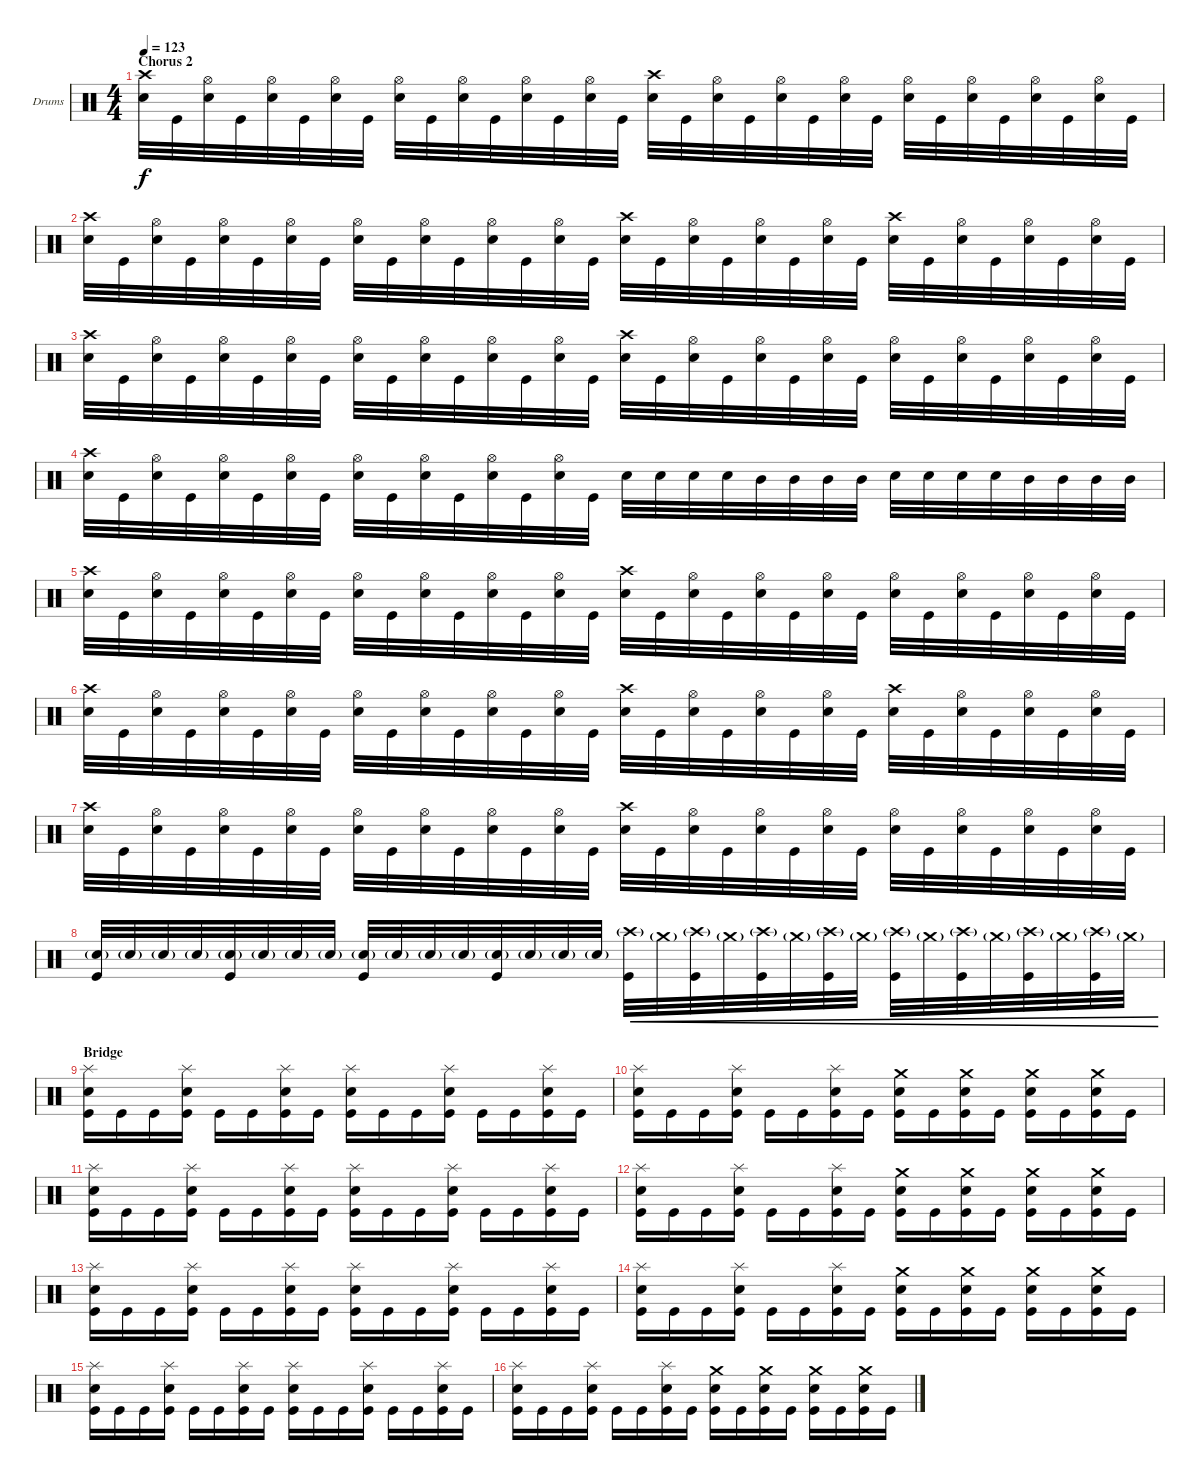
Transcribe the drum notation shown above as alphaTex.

\defaultSystemsLayout 4
\bracketExtendMode groupsimilarinstruments
\firstSystemTrackNameOrientation horizontal
\otherSystemsTrackNameOrientation horizontal
\track ("Drumkit" "Drums") {instrument percussion}
\staff {score}
\articulation defaults
\ts (4 4)
\section ("" "Chorus 2")
\tempo 123
\clef neutral
\scale
0.333333
\ks c
("Snare (hit) 2" "Crash high (hit)").32{dy f} "Kick (hit)".32 ("Snare (hit) 2" "Hi-Hat (open)").32 "Kick (hit)".32 ("Snare (hit) 2" "Hi-Hat (open)").32 "Kick (hit)".32 ("Snare (hit) 2" "Hi-Hat (open)").32 "Kick (hit)".32 ("Snare (hit) 2" "Hi-Hat (open)").32 "Kick (hit)".32 ("Snare (hit) 2" "Hi-Hat (open)").32 "Kick (hit)".32 ("Snare (hit) 2" "Hi-Hat (open)").32 "Kick (hit)".32 ("Snare (hit) 2" "Hi-Hat (open)").32 "Kick (hit)".32 ("Snare (hit) 2" "Crash high (hit)").32 "Kick (hit)".32 ("Snare (hit) 2" "Hi-Hat (open)").32 "Kick (hit)".32 ("Snare (hit) 2" "Hi-Hat (open)").32 "Kick (hit)".32 ("Snare (hit) 2" "Hi-Hat (open)").32 "Kick (hit)".32 ("Snare (hit) 2" "Hi-Hat (open)").32 "Kick (hit)".32 ("Snare (hit) 2" "Hi-Hat (open)").32 "Kick (hit)".32 ("Snare (hit) 2" "Hi-Hat (open)").32 "Kick (hit)".32 ("Snare (hit) 2" "Hi-Hat (open)").32 "Kick (hit)".32 |
\scale
0.333333 ("Snare (hit) 2" "Crash high (hit)").32 "Kick (hit)".32 ("Snare (hit) 2" "Hi-Hat (open)").32 "Kick (hit)".32 ("Snare (hit) 2" "Hi-Hat (open)").32 "Kick (hit)".32 ("Snare (hit) 2" "Hi-Hat (open)").32 "Kick (hit)".32 ("Snare (hit) 2" "Hi-Hat (open)").32 "Kick (hit)".32 ("Snare (hit) 2" "Hi-Hat (open)").32 "Kick (hit)".32 ("Snare (hit) 2" "Hi-Hat (open)").32 "Kick (hit)".32 ("Snare (hit) 2" "Hi-Hat (open)").32 "Kick (hit)".32 ("Snare (hit) 2" "Crash high (hit)").32 "Kick (hit)".32 ("Snare (hit) 2" "Hi-Hat (open)").32 "Kick (hit)".32 ("Snare (hit) 2" "Hi-Hat (open)").32 "Kick (hit)".32 ("Snare (hit) 2" "Hi-Hat (open)").32 "Kick (hit)".32 ("Snare (hit) 2" "Crash high (hit)").32 "Kick (hit)".32 ("Snare (hit) 2" "Hi-Hat (open)").32 "Kick (hit)".32 ("Snare (hit) 2" "Hi-Hat (open)").32 "Kick (hit)".32 ("Snare (hit) 2" "Hi-Hat (open)").32 "Kick (hit)".32 |
\scale
0.333333 ("Snare (hit) 2" "Crash high (hit)").32 "Kick (hit)".32 ("Snare (hit) 2" "Hi-Hat (open)").32 "Kick (hit)".32 ("Snare (hit) 2" "Hi-Hat (open)").32 "Kick (hit)".32 ("Snare (hit) 2" "Hi-Hat (open)").32 "Kick (hit)".32 ("Snare (hit) 2" "Hi-Hat (open)").32 "Kick (hit)".32 ("Snare (hit) 2" "Hi-Hat (open)").32 "Kick (hit)".32 ("Snare (hit) 2" "Hi-Hat (open)").32 "Kick (hit)".32 ("Snare (hit) 2" "Hi-Hat (open)").32 "Kick (hit)".32 ("Snare (hit) 2" "Crash high (hit)").32 "Kick (hit)".32 ("Snare (hit) 2" "Hi-Hat (open)").32 "Kick (hit)".32 ("Snare (hit) 2" "Hi-Hat (open)").32 "Kick (hit)".32 ("Snare (hit) 2" "Hi-Hat (open)").32 "Kick (hit)".32 ("Snare (hit) 2" "Hi-Hat (open)").32 "Kick (hit)".32 ("Snare (hit) 2" "Hi-Hat (open)").32 "Kick (hit)".32 ("Snare (hit) 2" "Hi-Hat (open)").32 "Kick (hit)".32 ("Snare (hit) 2" "Hi-Hat (open)").32 "Kick (hit)".32 |
\scale
0.333333 ("Snare (hit) 2" "Crash high (hit)").32 "Kick (hit)".32 ("Snare (hit) 2" "Hi-Hat (open)").32 "Kick (hit)".32 ("Snare (hit) 2" "Hi-Hat (open)").32 "Kick (hit)".32 ("Snare (hit) 2" "Hi-Hat (open)").32 "Kick (hit)".32 ("Snare (hit) 2" "Hi-Hat (open)").32 "Kick (hit)".32 ("Snare (hit) 2" "Hi-Hat (open)").32 "Kick (hit)".32 ("Snare (hit) 2" "Hi-Hat (open)").32 "Kick (hit)".32 ("Snare (hit) 2" "Hi-Hat (open)").32 "Kick (hit)".32 "Snare (hit) 2".32 "Snare (hit) 2".32 "Snare (hit) 2".32 "Snare (hit) 2".32 "Mid Tom (hit)".32 "Mid Tom (hit)".32 "Mid Tom (hit)".32 "Mid Tom (hit)".32 "Snare (hit) 2".32 "Snare (hit) 2".32 "Snare (hit) 2".32 "Snare (hit) 2".32 "Mid Tom (hit)".32 "Mid Tom (hit)".32 "Mid Tom (hit)".32 "Mid Tom (hit)".32 |
\scale
0.333333 ("Snare (hit) 2" "Crash high (hit)").32 "Kick (hit)".32 ("Snare (hit) 2" "Hi-Hat (open)").32 "Kick (hit)".32 ("Snare (hit) 2" "Hi-Hat (open)").32 "Kick (hit)".32 ("Snare (hit) 2" "Hi-Hat (open)").32 "Kick (hit)".32 ("Snare (hit) 2" "Hi-Hat (open)").32 "Kick (hit)".32 ("Snare (hit) 2" "Hi-Hat (open)").32 "Kick (hit)".32 ("Snare (hit) 2" "Hi-Hat (open)").32 "Kick (hit)".32 ("Snare (hit) 2" "Hi-Hat (open)").32 "Kick (hit)".32 ("Snare (hit) 2" "Crash high (hit)").32 "Kick (hit)".32 ("Snare (hit) 2" "Hi-Hat (open)").32 "Kick (hit)".32 ("Snare (hit) 2" "Hi-Hat (open)").32 "Kick (hit)".32 ("Snare (hit) 2" "Hi-Hat (open)").32 "Kick (hit)".32 ("Snare (hit) 2" "Hi-Hat (open)").32 "Kick (hit)".32 ("Snare (hit) 2" "Hi-Hat (open)").32 "Kick (hit)".32 ("Snare (hit) 2" "Hi-Hat (open)").32 "Kick (hit)".32 ("Snare (hit) 2" "Hi-Hat (open)").32 "Kick (hit)".32 |
\scale
0.333333 ("Snare (hit) 2" "Crash high (hit)").32 "Kick (hit)".32 ("Snare (hit) 2" "Hi-Hat (open)").32 "Kick (hit)".32 ("Snare (hit) 2" "Hi-Hat (open)").32 "Kick (hit)".32 ("Snare (hit) 2" "Hi-Hat (open)").32 "Kick (hit)".32 ("Snare (hit) 2" "Hi-Hat (open)").32 "Kick (hit)".32 ("Snare (hit) 2" "Hi-Hat (open)").32 "Kick (hit)".32 ("Snare (hit) 2" "Hi-Hat (open)").32 "Kick (hit)".32 ("Snare (hit) 2" "Hi-Hat (open)").32 "Kick (hit)".32 ("Snare (hit) 2" "Crash high (hit)").32 "Kick (hit)".32 ("Snare (hit) 2" "Hi-Hat (open)").32 "Kick (hit)".32 ("Snare (hit) 2" "Hi-Hat (open)").32 "Kick (hit)".32 ("Snare (hit) 2" "Hi-Hat (open)").32 "Kick (hit)".32 ("Snare (hit) 2" "Crash high (hit)").32 "Kick (hit)".32 ("Snare (hit) 2" "Hi-Hat (open)").32 "Kick (hit)".32 ("Snare (hit) 2" "Hi-Hat (open)").32 "Kick (hit)".32 ("Snare (hit) 2" "Hi-Hat (open)").32 "Kick (hit)".32 |
\scale
0.333333 ("Snare (hit) 2" "Crash high (hit)").32 "Kick (hit)".32 ("Snare (hit) 2" "Hi-Hat (open)").32 "Kick (hit)".32 ("Snare (hit) 2" "Hi-Hat (open)").32 "Kick (hit)".32 ("Snare (hit) 2" "Hi-Hat (open)").32 "Kick (hit)".32 ("Snare (hit) 2" "Hi-Hat (open)").32 "Kick (hit)".32 ("Snare (hit) 2" "Hi-Hat (open)").32 "Kick (hit)".32 ("Snare (hit) 2" "Hi-Hat (open)").32 "Kick (hit)".32 ("Snare (hit) 2" "Hi-Hat (open)").32 "Kick (hit)".32 ("Snare (hit) 2" "Crash high (hit)").32 "Kick (hit)".32 ("Snare (hit) 2" "Hi-Hat (open)").32 "Kick (hit)".32 ("Snare (hit) 2" "Hi-Hat (open)").32 "Kick (hit)".32 ("Snare (hit) 2" "Hi-Hat (open)").32 "Kick (hit)".32 ("Snare (hit) 2" "Hi-Hat (open)").32 "Kick (hit)".32 ("Snare (hit) 2" "Hi-Hat (open)").32 "Kick (hit)".32 ("Snare (hit) 2" "Hi-Hat (open)").32 "Kick (hit)".32 ("Snare (hit) 2" "Hi-Hat (open)").32 "Kick (hit)".32 |
\scale
0.333333 ("Snare (hit) 2"{g} "Kick (hit)").32 "Snare (hit) 2"{g}.32 "Snare (hit) 2"{g}.32 "Snare (hit) 2"{g}.32 ("Snare (hit) 2"{g} "Kick (hit)").32 "Snare (hit) 2"{g}.32 "Snare (hit) 2"{g}.32 "Snare (hit) 2"{g}.32 ("Snare (hit) 2"{g} "Kick (hit)").32 "Snare (hit) 2"{g}.32 "Snare (hit) 2"{g}.32 "Snare (hit) 2"{g}.32 ("Snare (hit) 2"{g} "Kick (hit)").32 "Snare (hit) 2"{g}.32 "Snare (hit) 2"{g}.32 "Snare (hit) 2"{g}.32 ("Kick (hit)" "Crash high (hit)"{g}).32{cre} "Crash medium (hit)"{g}.32{cre} ("Kick (hit)" "Crash high (hit)"{g}).32{cre} "Crash medium (hit)"{g}.32{cre} ("Kick (hit)" "Crash high (hit)"{g}).32{cre} "Crash medium (hit)"{g}.32{cre} ("Kick (hit)" "Crash high (hit)"{g}).32{cre} "Crash medium (hit)"{g}.32{cre} ("Kick (hit)" "Crash high (hit)"{g}).32{cre} "Crash medium (hit)"{g}.32{cre} ("Kick (hit)" "Crash high (hit)"{g}).32{cre} "Crash medium (hit)"{g}.32{cre} ("Kick (hit)" "Crash high (hit)"{g}).32{cre} "Crash medium (hit)"{g}.32{cre} ("Kick (hit)" "Crash high (hit)"{g}).32{cre} "Crash medium (hit)"{g}.32{cre} |
\section ("" "Bridge")
\scale
0.333333 ("Kick (hit)" "Snare (hit) 2" "Splash (hit)").16 "Kick (hit)".16 "Kick (hit)".16 ("Kick (hit)" "Snare (hit) 2" "Splash (hit)").16 "Kick (hit)".16 "Kick (hit)".16 ("Kick (hit)" "Snare (hit) 2" "Splash (hit)").16 "Kick (hit)".16 ("Kick (hit)" "Snare (hit) 2" "Splash (hit)").16 "Kick (hit)".16 "Kick (hit)".16 ("Kick (hit)" "Snare (hit) 2" "Splash (hit)").16 "Kick (hit)".16 "Kick (hit)".16 ("Kick (hit)" "Snare (hit) 2" "Splash (hit)").16 "Kick (hit)".16 |
\scale
0.333333 ("Kick (hit)" "Snare (hit) 2" "Splash (hit)").16 "Kick (hit)".16 "Kick (hit)".16 ("Kick (hit)" "Snare (hit) 2" "Splash (hit)").16 "Kick (hit)".16 "Kick (hit)".16 ("Kick (hit)" "Snare (hit) 2" "Splash (hit)").16 "Kick (hit)".16 ("Kick (hit)" "Snare (hit) 2" "Crash medium (hit)").16 "Kick (hit)".16 ("Kick (hit)" "Snare (hit) 2" "Crash medium (hit)").16 "Kick (hit)".16 ("Kick (hit)" "Snare (hit) 2" "Crash medium (hit)").16 "Kick (hit)".16 ("Kick (hit)" "Crash medium (hit)" "Snare (hit) 2").16 "Kick (hit)".16 |
\scale
0.333333 ("Kick (hit)" "Snare (hit) 2" "Splash (hit)").16 "Kick (hit)".16 "Kick (hit)".16 ("Kick (hit)" "Snare (hit) 2" "Splash (hit)").16 "Kick (hit)".16 "Kick (hit)".16 ("Kick (hit)" "Snare (hit) 2" "Splash (hit)").16 "Kick (hit)".16 ("Kick (hit)" "Snare (hit) 2" "Splash (hit)").16 "Kick (hit)".16 "Kick (hit)".16 ("Kick (hit)" "Snare (hit) 2" "Splash (hit)").16 "Kick (hit)".16 "Kick (hit)".16 ("Kick (hit)" "Snare (hit) 2" "Splash (hit)").16 "Kick (hit)".16 |
\scale
0.333333 ("Kick (hit)" "Snare (hit) 2" "Splash (hit)").16 "Kick (hit)".16 "Kick (hit)".16 ("Kick (hit)" "Snare (hit) 2" "Splash (hit)").16 "Kick (hit)".16 "Kick (hit)".16 ("Kick (hit)" "Snare (hit) 2" "Splash (hit)").16 "Kick (hit)".16 ("Kick (hit)" "Snare (hit) 2" "Crash medium (hit)").16 "Kick (hit)".16 ("Kick (hit)" "Snare (hit) 2" "Crash medium (hit)").16 "Kick (hit)".16 ("Kick (hit)" "Snare (hit) 2" "Crash medium (hit)").16 "Kick (hit)".16 ("Kick (hit)" "Crash medium (hit)" "Snare (hit) 2").16 "Kick (hit)".16 |
\scale
0.333333 ("Kick (hit)" "Snare (hit) 2" "Splash (hit)").16 "Kick (hit)".16 "Kick (hit)".16 ("Kick (hit)" "Snare (hit) 2" "Splash (hit)").16 "Kick (hit)".16 "Kick (hit)".16 ("Kick (hit)" "Snare (hit) 2" "Splash (hit)").16 "Kick (hit)".16 ("Kick (hit)" "Snare (hit) 2" "Splash (hit)").16 "Kick (hit)".16 "Kick (hit)".16 ("Kick (hit)" "Snare (hit) 2" "Splash (hit)").16 "Kick (hit)".16 "Kick (hit)".16 ("Kick (hit)" "Snare (hit) 2" "Splash (hit)").16 "Kick (hit)".16 |
\scale
0.333333 ("Kick (hit)" "Snare (hit) 2" "Splash (hit)").16 "Kick (hit)".16 "Kick (hit)".16 ("Kick (hit)" "Snare (hit) 2" "Splash (hit)").16 "Kick (hit)".16 "Kick (hit)".16 ("Kick (hit)" "Snare (hit) 2" "Splash (hit)").16 "Kick (hit)".16 ("Kick (hit)" "Snare (hit) 2" "Crash medium (hit)").16 "Kick (hit)".16 ("Kick (hit)" "Snare (hit) 2" "Crash medium (hit)").16 "Kick (hit)".16 ("Kick (hit)" "Snare (hit) 2" "Crash medium (hit)").16 "Kick (hit)".16 ("Kick (hit)" "Crash medium (hit)" "Snare (hit) 2").16 "Kick (hit)".16 |
\scale
0.333333 ("Kick (hit)" "Snare (hit) 2" "Splash (hit)").16 "Kick (hit)".16 "Kick (hit)".16 ("Kick (hit)" "Snare (hit) 2" "Splash (hit)").16 "Kick (hit)".16 "Kick (hit)".16 ("Kick (hit)" "Snare (hit) 2" "Splash (hit)").16 "Kick (hit)".16 ("Kick (hit)" "Snare (hit) 2" "Splash (hit)").16 "Kick (hit)".16 "Kick (hit)".16 ("Kick (hit)" "Snare (hit) 2" "Splash (hit)").16 "Kick (hit)".16 "Kick (hit)".16 ("Kick (hit)" "Snare (hit) 2" "Splash (hit)").16 "Kick (hit)".16 |
\scale
0.333333 ("Kick (hit)" "Snare (hit) 2" "Splash (hit)").16 "Kick (hit)".16 "Kick (hit)".16 ("Kick (hit)" "Snare (hit) 2" "Splash (hit)").16 "Kick (hit)".16 "Kick (hit)".16 ("Kick (hit)" "Snare (hit) 2" "Splash (hit)").16 "Kick (hit)".16 ("Kick (hit)" "Snare (hit) 2" "Crash medium (hit)").16 "Kick (hit)".16 ("Kick (hit)" "Snare (hit) 2" "Crash medium (hit)").16 "Kick (hit)".16 ("Kick (hit)" "Snare (hit) 2" "Crash medium (hit)").16 "Kick (hit)".16 ("Kick (hit)" "Crash medium (hit)" "Snare (hit) 2").16 "Kick (hit)".16
